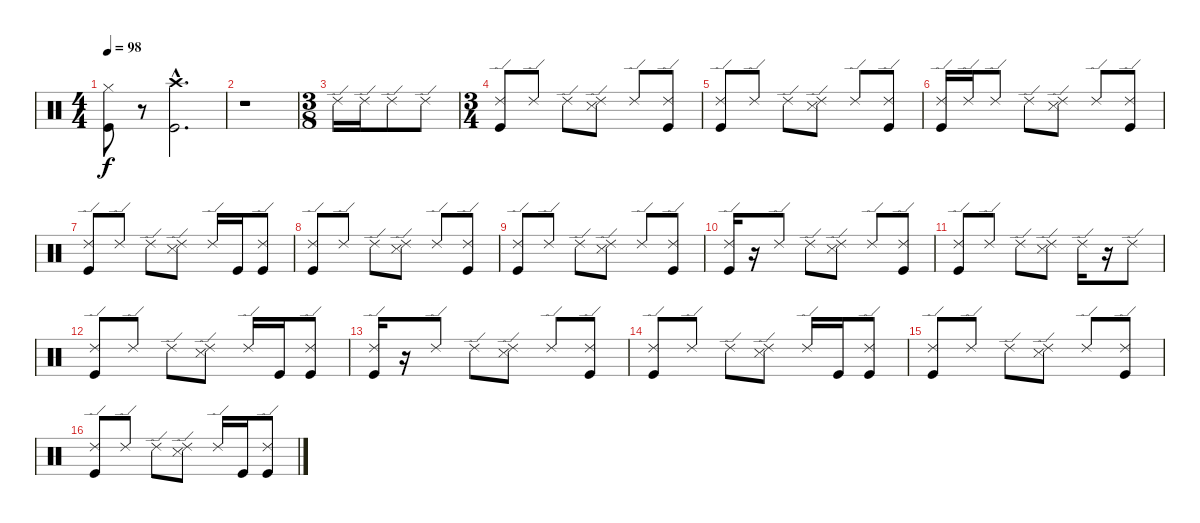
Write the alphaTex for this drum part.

\track "" {instrument percussion}
\staff {score}
\articulation defaults
\ts (4 4)
\tempo 98
\clef neutral
\ks c
("Kick (hit)" "Hi-Hat (closed)").8{dy f} r.8 ("Crash high (hit)"{hac} "Kick (hit)"{hac}).2{d} |
r.1 |
\ts (3 8)
"Ride (edge) 2".16 "Ride (edge) 2".16 "Ride (edge) 2".8 "Ride (edge) 2".8 |
\ts (3 4)
("Ride (edge) 2" "Kick (hit)").8 "Ride (edge) 2".8 "Ride (edge) 2".8 ("Ride (edge) 2" "Snare (side stick) 3").8 "Ride (edge) 2".8 ("Ride (edge) 2" "Kick (hit)").8 |
("Ride (edge) 2" "Kick (hit)").8 "Ride (edge) 2".8 "Ride (edge) 2".8 ("Ride (edge) 2" "Snare (side stick) 3").8 "Ride (edge) 2".8 ("Ride (edge) 2" "Kick (hit)").8 |
("Ride (edge) 2" "Kick (hit)").16 "Ride (edge) 2".16 "Ride (edge) 2".8 "Ride (edge) 2".8 ("Ride (edge) 2" "Snare (side stick) 3").8 "Ride (edge) 2".8 ("Ride (edge) 2" "Kick (hit)").8 |
("Ride (edge) 2" "Kick (hit)").8 "Ride (edge) 2".8 "Ride (edge) 2".8 ("Ride (edge) 2" "Snare (side stick) 3").8 "Ride (edge) 2".16 "Kick (hit)".16 ("Ride (edge) 2" "Kick (hit)").8 |
("Ride (edge) 2" "Kick (hit)").8 "Ride (edge) 2".8 "Ride (edge) 2".8 ("Ride (edge) 2" "Snare (side stick) 3").8 "Ride (edge) 2".8 ("Ride (edge) 2" "Kick (hit)").8 |
("Ride (edge) 2" "Kick (hit)").8 "Ride (edge) 2".8 "Ride (edge) 2".8 ("Ride (edge) 2" "Snare (side stick) 3").8 "Ride (edge) 2".8 ("Ride (edge) 2" "Kick (hit)").8 |
("Ride (edge) 2" "Kick (hit)").16 r.16 "Ride (edge) 2".8 "Ride (edge) 2".8 ("Ride (edge) 2" "Snare (side stick) 3").8 "Ride (edge) 2".8 ("Ride (edge) 2" "Kick (hit)").8 |
("Ride (edge) 2" "Kick (hit)").8 "Ride (edge) 2".8 "Ride (edge) 2".8 ("Ride (edge) 2" "Snare (side stick) 3").8 "Ride (edge) 2".16 r.16 "Ride (edge) 2".8 |
("Ride (edge) 2" "Kick (hit)").8 "Ride (edge) 2".8 "Ride (edge) 2".8 ("Ride (edge) 2" "Snare (side stick) 3").8 "Ride (edge) 2".16 "Kick (hit)".16 ("Ride (edge) 2" "Kick (hit)").8 |
("Ride (edge) 2" "Kick (hit)").16 r.16 "Ride (edge) 2".8 "Ride (edge) 2".8 ("Ride (edge) 2" "Snare (side stick) 3").8 "Ride (edge) 2".8 ("Ride (edge) 2" "Kick (hit)").8 |
("Ride (edge) 2" "Kick (hit)").8 "Ride (edge) 2".8 "Ride (edge) 2".8 ("Ride (edge) 2" "Snare (side stick) 3").8 "Ride (edge) 2".16 "Kick (hit)".16 ("Ride (edge) 2" "Kick (hit)").8 |
("Ride (edge) 2" "Kick (hit)").8 "Ride (edge) 2".8 "Ride (edge) 2".8 ("Ride (edge) 2" "Snare (side stick) 3").8 "Ride (edge) 2".8 ("Ride (edge) 2" "Kick (hit)").8 |
("Ride (edge) 2" "Kick (hit)").8 "Ride (edge) 2".8 "Ride (edge) 2".8 ("Ride (edge) 2" "Snare (side stick) 3").8 "Ride (edge) 2".16 "Kick (hit)".16 ("Ride (edge) 2" "Kick (hit)").8
